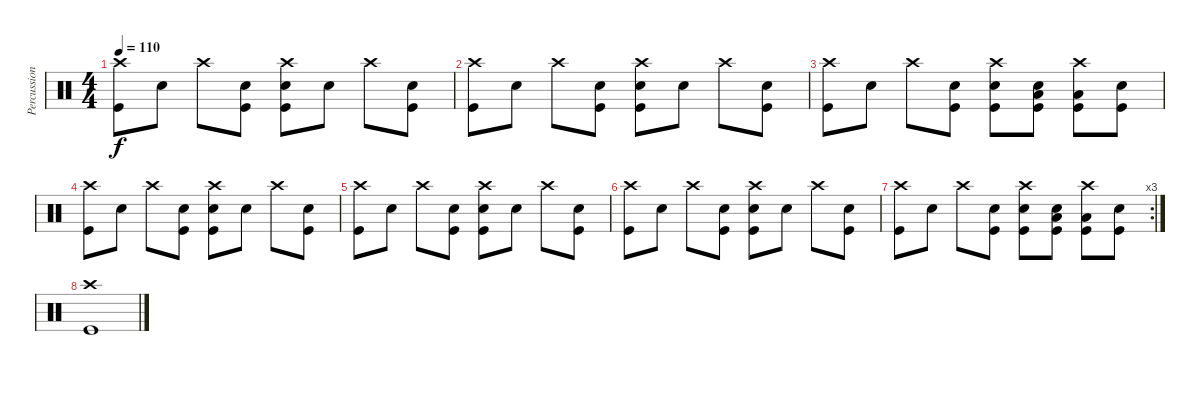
\track ("Percussion" "Percussion") {instrument percussion}
\staff {score}
\articulation defaults
\ts (4 4)
\tempo 110
\clef neutral
\ks c
("Crash high (hit)" "Kick (hit)").8{dy f} "Snare (hit)".8 "Crash high (hit)".8 ("Snare (hit)" "Kick (hit)").8 ("Crash high (hit)" "Snare (hit) 2" "Kick (hit)").8 "Snare (hit)".8 "Crash high (hit)".8 ("Snare (hit)" "Kick (hit)").8 |
("Crash high (hit)" "Kick (hit)").8 "Snare (hit)".8 "Crash high (hit)".8 ("Snare (hit)" "Kick (hit)").8 ("Crash high (hit)" "Snare (hit) 2" "Kick (hit)").8 "Snare (hit)".8 "Crash high (hit)".8 ("Snare (hit)" "Kick (hit)").8 |
("Crash high (hit)" "Kick (hit)").8 "Snare (hit)".8 "Crash high (hit)".8 ("Snare (hit)" "Kick (hit)").8 ("Crash high (hit)" "Snare (hit) 2" "Kick (hit)").8 ("Snare (hit)" "Low Tom (hit)" "Kick (hit)").8 ("Crash high (hit)" "Low Tom (hit)" "Kick (hit)").8 ("Snare (hit)" "Kick (hit)").8 |
("Crash high (hit)" "Kick (hit)").8 "Snare (hit)".8 "Crash high (hit)".8 ("Snare (hit)" "Kick (hit)").8 ("Crash high (hit)" "Snare (hit) 2" "Kick (hit)").8 "Snare (hit)".8 "Crash high (hit)".8 ("Snare (hit)" "Kick (hit)").8 |
("Crash high (hit)" "Kick (hit)").8 "Snare (hit)".8 "Crash high (hit)".8 ("Snare (hit)" "Kick (hit)").8 ("Crash high (hit)" "Snare (hit) 2" "Kick (hit)").8 "Snare (hit)".8 "Crash high (hit)".8 ("Snare (hit)" "Kick (hit)").8 |
("Crash high (hit)" "Kick (hit)").8 "Snare (hit)".8 "Crash high (hit)".8 ("Snare (hit)" "Kick (hit)").8 ("Crash high (hit)" "Snare (hit) 2" "Kick (hit)").8 "Snare (hit)".8 "Crash high (hit)".8 ("Snare (hit)" "Kick (hit)").8 |
\rc 3
("Crash high (hit)" "Kick (hit)").8 "Snare (hit)".8 "Crash high (hit)".8 ("Snare (hit)" "Kick (hit)").8 ("Crash high (hit)" "Snare (hit) 2" "Kick (hit)").8 ("Snare (hit)" "Low Tom (hit)" "Kick (hit)").8 ("Crash high (hit)" "Low Tom (hit)" "Kick (hit)").8 ("Snare (hit)" "Kick (hit)").8 |
("Crash high (hit)" "Kick (hit)").1
